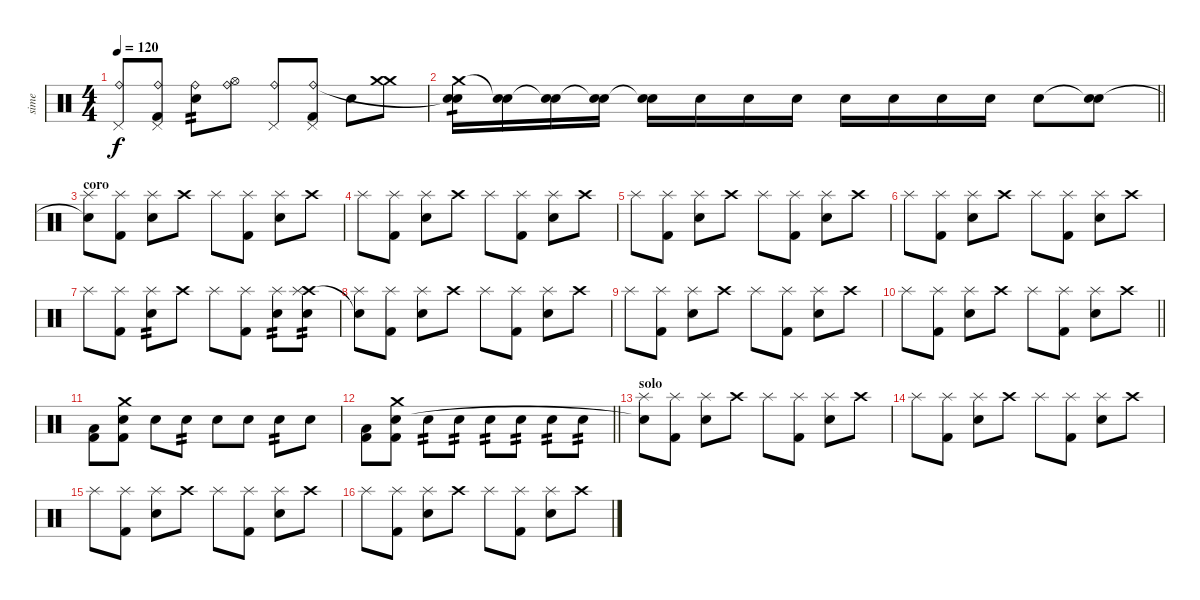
\track ("sime" "sime") {instrument percussion}
\staff {score}
\articulation defaults
\ts (4 4)
\tempo 120
\clef neutral
\ks c
("Pedal Hi-Hat (hit)" "Ride (bell)").8{dy f} ("Kick (hit) 2" "Pedal Hi-Hat (hit)" "Ride (bell)").8 ("Snare (hit) 2" "Ride (bell)").8{tp 2} ("Hi-Hat (open)" "Ride (bell)").8 ("Pedal Hi-Hat (hit)" "Ride (bell)").8 ("Kick (hit) 2" "Pedal Hi-Hat (hit)" "Ride (bell)").8 "Snare (hit) 2".8 ("Crash medium (hit)" "Crash medium (hit)").8 |
\barLineRight lightlight
("Crash medium (hit)" "Snare (hit) 2" "Snare (hit)"{t}).16{tp 1} ("Snare (hit)"{t} "Snare (hit) 2").16 ("Snare (hit)"{t} "Snare (hit) 2").16 ("Snare (hit)"{t} "Snare (hit) 2").16 ("Snare (hit)"{t} "Snare (hit) 2").16 "Snare (hit) 2".16 "Snare (hit) 2".16 "Snare (hit) 2".16 "Snare (hit) 2".16 "Snare (hit) 2".16 "Snare (hit) 2".16 "Snare (hit) 2".16 "Snare (hit) 2".8 ("Snare (hit)"{t} "Snare (hit) 2").8 |
\section ("" "coro")
("Splash (hit)" "Snare (hit)"{t}).8 ("Kick (hit) 2" "Splash (hit)").8 ("Snare (hit) 2" "Splash (hit)").8 "Crash high (hit)".8 "Splash (hit)".8 ("Kick (hit) 2" "Splash (hit)").8 ("Snare (hit) 2" "Splash (hit)").8 "Crash high (hit)".8 |
"Splash (hit)".8 ("Kick (hit) 2" "Splash (hit)").8 ("Snare (hit) 2" "Splash (hit)").8 "Crash high (hit)".8 "Splash (hit)".8 ("Kick (hit) 2" "Splash (hit)").8 ("Snare (hit) 2" "Splash (hit)").8 "Crash high (hit)".8 |
"Splash (hit)".8 ("Kick (hit) 2" "Splash (hit)").8 ("Snare (hit) 2" "Splash (hit)").8 "Crash high (hit)".8 "Splash (hit)".8 ("Kick (hit) 2" "Splash (hit)").8 ("Snare (hit) 2" "Splash (hit)").8 "Crash high (hit)".8 |
"Splash (hit)".8 ("Kick (hit) 2" "Splash (hit)").8 ("Snare (hit) 2" "Splash (hit)").8 "Crash high (hit)".8 "Splash (hit)".8 ("Kick (hit) 2" "Splash (hit)").8 ("Snare (hit) 2" "Splash (hit)").8 "Crash high (hit)".8 |
"Splash (hit)".8 ("Kick (hit) 2" "Splash (hit)").8 ("Snare (hit) 2" "Splash (hit)").8{tp 2} "Crash high (hit)".8 "Splash (hit)".8 ("Kick (hit) 2" "Splash (hit)").8 ("Snare (hit) 2" "Splash (hit)").8{tp 2} ("Snare (hit) 2" "Crash high (hit)" "Splash (hit)").8{tp 2} |
("Splash (hit)" "Snare (hit)"{t}).8 ("Kick (hit) 2" "Splash (hit)").8 ("Snare (hit) 2" "Splash (hit)").8 "Crash high (hit)".8 "Splash (hit)".8 ("Kick (hit) 2" "Splash (hit)").8 ("Snare (hit) 2" "Splash (hit)").8 "Crash high (hit)".8 |
"Splash (hit)".8 ("Kick (hit) 2" "Splash (hit)").8 ("Snare (hit) 2" "Splash (hit)").8 "Crash high (hit)".8 "Splash (hit)".8 ("Kick (hit) 2" "Splash (hit)").8 ("Snare (hit) 2" "Splash (hit)").8 "Crash high (hit)".8 |
\barLineRight lightlight "Splash (hit)".8
("Kick (hit) 2" "Splash (hit)").8 ("Snare (hit) 2" "Splash (hit)").8 "Crash high (hit)".8 "Splash (hit)".8 ("Kick (hit) 2" "Splash (hit)").8 ("Snare (hit) 2" "Splash (hit)").8 "Crash high (hit)".8 |
("Kick (hit) 2" "Low Floor Tom (hit)").8 ("Kick (hit) 2" "Snare (hit) 2" "Crash medium (hit)").8 "Snare (hit) 2".8 "Snare (hit) 2".8{tp 2} "Snare (hit) 2".8 "Snare (hit) 2".8 "Snare (hit) 2".8{tp 2} "Snare (hit) 2".8 |
\barLineRight lightlight
("Kick (hit) 2" "Low Floor Tom (hit)").8 ("Kick (hit) 2" "Snare (hit) 2" "Crash medium (hit)").8 "Snare (hit) 2".8{tp 2} "Snare (hit) 2".8{tp 2} "Snare (hit) 2".8{tp 2} "Snare (hit) 2".8{tp 2} "Snare (hit) 2".8{tp 2} "Snare (hit) 2".8{tp 2} |
\section ("" "solo")
("Splash (hit)" "Snare (hit)"{t}).8 ("Kick (hit) 2" "Splash (hit)").8 ("Snare (hit) 2" "Splash (hit)").8 "Crash high (hit)".8 "Splash (hit)".8 ("Kick (hit) 2" "Splash (hit)").8 ("Snare (hit) 2" "Splash (hit)").8 "Crash high (hit)".8 |
"Splash (hit)".8 ("Kick (hit) 2" "Splash (hit)").8 ("Snare (hit) 2" "Splash (hit)").8 "Crash high (hit)".8 "Splash (hit)".8 ("Kick (hit) 2" "Splash (hit)").8 ("Snare (hit) 2" "Splash (hit)").8 "Crash high (hit)".8 |
"Splash (hit)".8 ("Kick (hit) 2" "Splash (hit)").8 ("Snare (hit) 2" "Splash (hit)").8 "Crash high (hit)".8 "Splash (hit)".8 ("Kick (hit) 2" "Splash (hit)").8 ("Snare (hit) 2" "Splash (hit)").8 "Crash high (hit)".8 |
"Splash (hit)".8 ("Kick (hit) 2" "Splash (hit)").8 ("Snare (hit) 2" "Splash (hit)").8 "Crash high (hit)".8 "Splash (hit)".8 ("Kick (hit) 2" "Splash (hit)").8 ("Snare (hit) 2" "Splash (hit)").8 "Crash high (hit)".8
